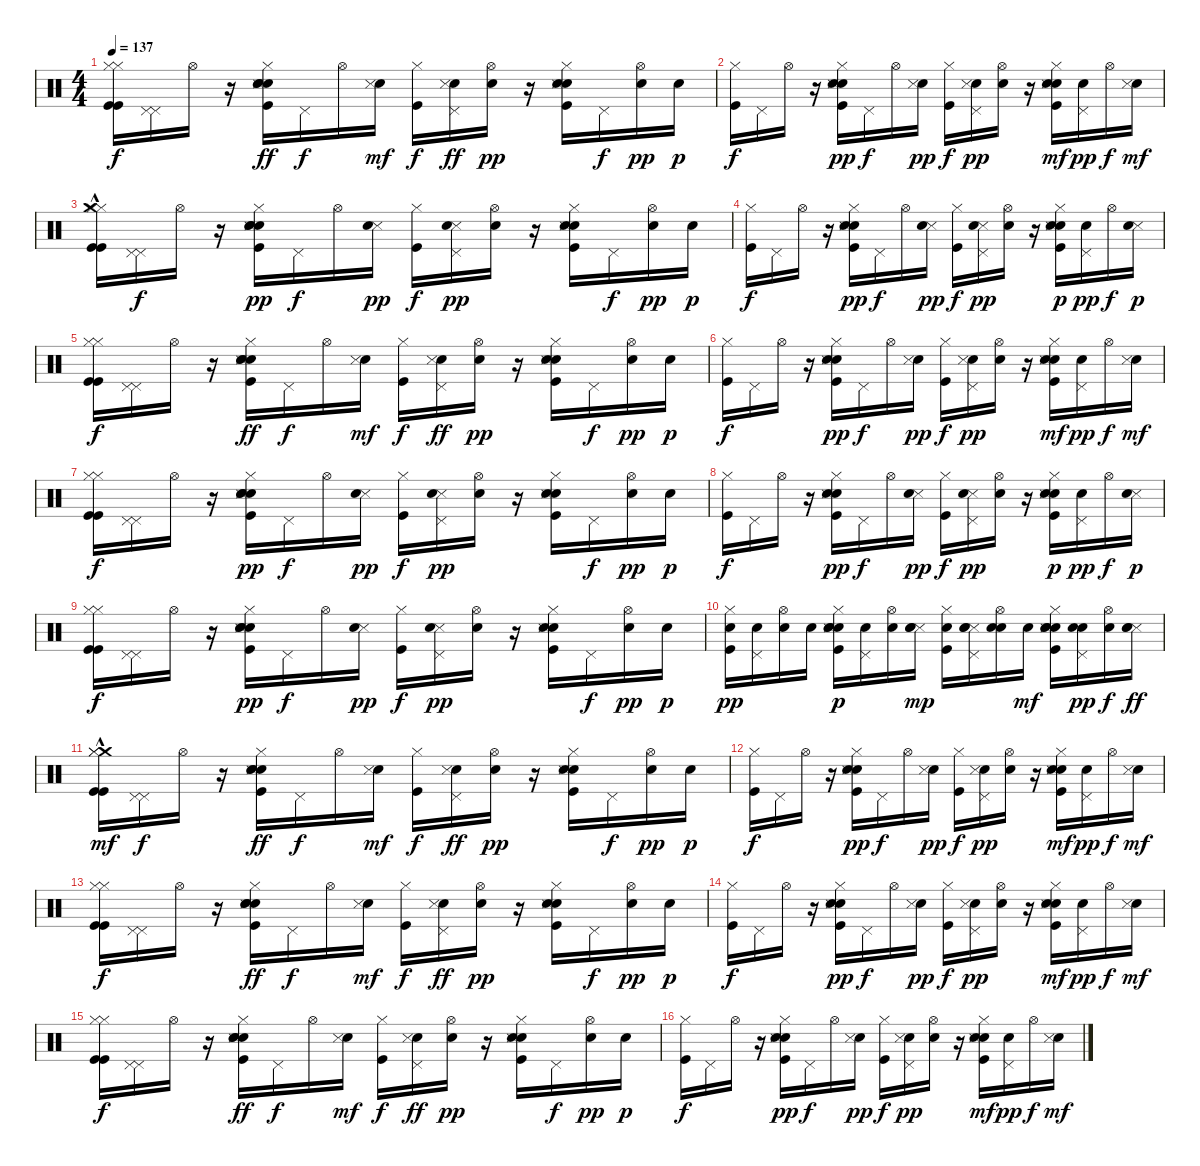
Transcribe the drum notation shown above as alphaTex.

\track "" {instrument percussion}
\staff {score}
\articulation defaults
\ts (4 4)
\tempo 137
\clef neutral
\ks c
("Hi-Hat (closed)" "Kick (hit)" "Kick (hit)" "Hi-Hat (closed)").16{dy f volume 13} ("Pedal Hi-Hat (hit)" "Pedal Hi-Hat (hit)").16 "Hi-Hat (open)".16 r.16 ("Hand Clap (hit)" "Kick (hit)" "Hi-Hat (closed)" "Metronome (bell)" "Metronome (bell)" "Snare (side stick) 3").16{dy ff} "Pedal Hi-Hat (hit)".16{dy f} "Hi-Hat (open)".16 ("Metronome (bell)" "Snare (side stick) 3").16{dy mf} ("Kick (hit)" "Hi-Hat (closed)").16{dy f} ("Pedal Hi-Hat (hit)" "Metronome (bell)" "Snare (side stick) 3").16{dy ff} ("Hi-Hat (open)" "Metronome (bell)").16{dy pp} r.16 ("Hand Clap (hit)" "Hi-Hat (closed)" "Kick (hit)" "Metronome (bell)" "Snare (side stick) 3").16 "Pedal Hi-Hat (hit)".16{dy f} ("Hi-Hat (open)" "Metronome (bell)").16{dy pp} "Metronome (bell)".16{dy p} |
("Hi-Hat (closed)" "Kick (hit)").16{dy f} "Pedal Hi-Hat (hit)".16 "Hi-Hat (open)".16 r.16 ("Hand Clap (hit)" "Kick (hit)" "Hi-Hat (closed)" "Metronome (bell)" "Snare (side stick) 3").16{dy pp} "Pedal Hi-Hat (hit)".16{dy f} "Hi-Hat (open)".16 ("Metronome (bell)" "Snare (side stick) 3").16{dy pp} ("Kick (hit)" "Hi-Hat (closed)").16{dy f} ("Pedal Hi-Hat (hit)" "Metronome (bell)" "Snare (side stick) 3").16{dy pp} ("Hi-Hat (open)" "Metronome (bell)").16 r.16 ("Hand Clap (hit)" "Hi-Hat (closed)" "Kick (hit)" "Metronome (bell)" "Snare (side stick) 3").16{dy mf} ("Pedal Hi-Hat (hit)" "Metronome (bell)").16{dy pp} "Hi-Hat (open)".16{dy f} ("Metronome (bell)" "Snare (side stick) 3").16{dy mf} |
("Hi-Hat (closed)" "Kick (hit)" "Kick (hit)" "Hi-Hat (closed)" "Crash medium (hit)"{hac}).16{volume 13} ("Pedal Hi-Hat (hit)" "Pedal Hi-Hat (hit)").16{dy f} "Hi-Hat (open)".16 r.16 ("Hand Clap (hit)" "Kick (hit)" "Hi-Hat (closed)" "Snare (side stick) 3" "Metronome (bell)" "Metronome (bell)").16{dy pp} "Pedal Hi-Hat (hit)".16{dy f} "Hi-Hat (open)".16 ("Snare (side stick) 3" "Metronome (bell)").16{dy pp} ("Kick (hit)" "Hi-Hat (closed)").16{dy f} ("Pedal Hi-Hat (hit)" "Snare (side stick) 3" "Metronome (bell)").16{dy pp} ("Hi-Hat (open)" "Metronome (bell)").16 r.16 ("Hand Clap (hit)" "Hi-Hat (closed)" "Kick (hit)" "Snare (side stick) 3" "Metronome (bell)").16 "Pedal Hi-Hat (hit)".16{dy f} ("Hi-Hat (open)" "Metronome (bell)").16{dy pp} "Metronome (bell)".16{dy p} |
("Hi-Hat (closed)" "Kick (hit)").16{dy f} "Pedal Hi-Hat (hit)".16 "Hi-Hat (open)".16 r.16 ("Hand Clap (hit)" "Kick (hit)" "Hi-Hat (closed)" "Snare (side stick) 3" "Metronome (bell)").16{dy pp} "Pedal Hi-Hat (hit)".16{dy f} "Hi-Hat (open)".16 ("Snare (side stick) 3" "Metronome (bell)").16{dy pp} ("Kick (hit)" "Hi-Hat (closed)").16{dy f} ("Pedal Hi-Hat (hit)" "Snare (side stick) 3" "Metronome (bell)").16{dy pp} ("Hi-Hat (open)" "Metronome (bell)").16 r.16 ("Hand Clap (hit)" "Hi-Hat (closed)" "Kick (hit)" "Snare (side stick) 3" "Metronome (bell)").16{dy p} ("Pedal Hi-Hat (hit)" "Metronome (bell)").16{dy pp} "Hi-Hat (open)".16{dy f} ("Snare (side stick) 3" "Metronome (bell)").16{dy p} |
("Hi-Hat (closed)" "Kick (hit)" "Kick (hit)" "Hi-Hat (closed)").16{dy f volume 13} ("Pedal Hi-Hat (hit)" "Pedal Hi-Hat (hit)").16 "Hi-Hat (open)".16 r.16 ("Hand Clap (hit)" "Kick (hit)" "Hi-Hat (closed)" "Metronome (bell)" "Metronome (bell)" "Snare (side stick) 3").16{dy ff} "Pedal Hi-Hat (hit)".16{dy f} "Hi-Hat (open)".16 ("Metronome (bell)" "Snare (side stick) 3").16{dy mf} ("Kick (hit)" "Hi-Hat (closed)").16{dy f} ("Pedal Hi-Hat (hit)" "Metronome (bell)" "Snare (side stick) 3").16{dy ff} ("Hi-Hat (open)" "Metronome (bell)").16{dy pp} r.16 ("Hand Clap (hit)" "Hi-Hat (closed)" "Kick (hit)" "Metronome (bell)" "Snare (side stick) 3").16 "Pedal Hi-Hat (hit)".16{dy f} ("Hi-Hat (open)" "Metronome (bell)").16{dy pp} "Metronome (bell)".16{dy p} |
("Hi-Hat (closed)" "Kick (hit)").16{dy f} "Pedal Hi-Hat (hit)".16 "Hi-Hat (open)".16 r.16 ("Hand Clap (hit)" "Kick (hit)" "Hi-Hat (closed)" "Metronome (bell)" "Snare (side stick) 3").16{dy pp} "Pedal Hi-Hat (hit)".16{dy f} "Hi-Hat (open)".16 ("Metronome (bell)" "Snare (side stick) 3").16{dy pp} ("Kick (hit)" "Hi-Hat (closed)").16{dy f} ("Pedal Hi-Hat (hit)" "Metronome (bell)" "Snare (side stick) 3").16{dy pp} ("Hi-Hat (open)" "Metronome (bell)").16 r.16 ("Hand Clap (hit)" "Hi-Hat (closed)" "Kick (hit)" "Metronome (bell)" "Snare (side stick) 3").16{dy mf} ("Pedal Hi-Hat (hit)" "Metronome (bell)").16{dy pp} "Hi-Hat (open)".16{dy f} ("Metronome (bell)" "Snare (side stick) 3").16{dy mf} |
("Hi-Hat (closed)" "Kick (hit)" "Kick (hit)" "Hi-Hat (closed)").16{dy f volume 13} ("Pedal Hi-Hat (hit)" "Pedal Hi-Hat (hit)").16 "Hi-Hat (open)".16 r.16 ("Hand Clap (hit)" "Kick (hit)" "Hi-Hat (closed)" "Snare (side stick) 3" "Metronome (bell)" "Metronome (bell)").16{dy pp} "Pedal Hi-Hat (hit)".16{dy f} "Hi-Hat (open)".16 ("Snare (side stick) 3" "Metronome (bell)").16{dy pp} ("Kick (hit)" "Hi-Hat (closed)").16{dy f} ("Pedal Hi-Hat (hit)" "Snare (side stick) 3" "Metronome (bell)").16{dy pp} ("Hi-Hat (open)" "Metronome (bell)").16 r.16 ("Hand Clap (hit)" "Hi-Hat (closed)" "Kick (hit)" "Snare (side stick) 3" "Metronome (bell)").16 "Pedal Hi-Hat (hit)".16{dy f} ("Hi-Hat (open)" "Metronome (bell)").16{dy pp} "Metronome (bell)".16{dy p} |
("Hi-Hat (closed)" "Kick (hit)").16{dy f} "Pedal Hi-Hat (hit)".16 "Hi-Hat (open)".16 r.16 ("Hand Clap (hit)" "Kick (hit)" "Hi-Hat (closed)" "Snare (side stick) 3" "Metronome (bell)").16{dy pp} "Pedal Hi-Hat (hit)".16{dy f} "Hi-Hat (open)".16 ("Snare (side stick) 3" "Metronome (bell)").16{dy pp} ("Kick (hit)" "Hi-Hat (closed)").16{dy f} ("Pedal Hi-Hat (hit)" "Snare (side stick) 3" "Metronome (bell)").16{dy pp} ("Hi-Hat (open)" "Metronome (bell)").16 r.16 ("Hand Clap (hit)" "Hi-Hat (closed)" "Kick (hit)" "Snare (side stick) 3" "Metronome (bell)").16{dy p} ("Pedal Hi-Hat (hit)" "Metronome (bell)").16{dy pp} "Hi-Hat (open)".16{dy f} ("Snare (side stick) 3" "Metronome (bell)").16{dy p} |
("Hi-Hat (closed)" "Kick (hit)" "Kick (hit)" "Hi-Hat (closed)").16{dy f volume 13} ("Pedal Hi-Hat (hit)" "Pedal Hi-Hat (hit)").16 "Hi-Hat (open)".16 r.16 ("Hand Clap (hit)" "Kick (hit)" "Hi-Hat (closed)" "Snare (side stick) 3" "Metronome (bell)" "Metronome (bell)").16{dy pp} "Pedal Hi-Hat (hit)".16{dy f} "Hi-Hat (open)".16 ("Snare (side stick) 3" "Metronome (bell)").16{dy pp} ("Kick (hit)" "Hi-Hat (closed)").16{dy f} ("Pedal Hi-Hat (hit)" "Snare (side stick) 3" "Metronome (bell)").16{dy pp} ("Hi-Hat (open)" "Metronome (bell)").16 r.16 ("Hand Clap (hit)" "Hi-Hat (closed)" "Kick (hit)" "Snare (side stick) 3" "Metronome (bell)").16 "Pedal Hi-Hat (hit)".16{dy f} ("Hi-Hat (open)" "Metronome (bell)").16{dy pp} "Metronome (bell)".16{dy p} |
("Hi-Hat (closed)" "Kick (hit)" "Snare (hit) 2").16{dy pp} ("Pedal Hi-Hat (hit)" "Snare (hit) 2").16 ("Hi-Hat (open)" "Snare (hit) 2").16 "Snare (hit) 2".16 ("Hand Clap (hit)" "Kick (hit)" "Hi-Hat (closed)" "Snare (side stick) 3" "Metronome (bell)" "Snare (hit) 2").16{dy p} ("Pedal Hi-Hat (hit)" "Snare (hit) 2").16 ("Hi-Hat (open)" "Snare (hit) 2").16 ("Snare (side stick) 3" "Metronome (bell)" "Snare (hit) 2").16{dy mp} ("Kick (hit)" "Hi-Hat (closed)" "Snare (hit) 2").16 ("Pedal Hi-Hat (hit)" "Snare (side stick) 3" "Metronome (bell)" "Snare (hit) 2").16 ("Hi-Hat (open)" "Metronome (bell)" "Snare (hit) 2").16 "Snare (hit) 2".16{dy mf} ("Hand Clap (hit)" "Hi-Hat (closed)" "Kick (hit)" "Snare (side stick) 3" "Metronome (bell)" "Snare (hit) 2").16 ("Pedal Hi-Hat (hit)" "Metronome (bell)" "Snare (hit) 2").16{dy pp} ("Hi-Hat (open)" "Snare (hit) 2").16{dy f} ("Snare (side stick) 3" "Metronome (bell)" "Snare (hit) 2").16{dy ff} |
("Crash medium (hit)"{hac} "Hi-Hat (closed)" "Kick (hit)" "Kick (hit)" "Hi-Hat (closed)").16{dy mf volume 13} ("Pedal Hi-Hat (hit)" "Pedal Hi-Hat (hit)").16{dy f} "Hi-Hat (open)".16 r.16 ("Hand Clap (hit)" "Kick (hit)" "Hi-Hat (closed)" "Metronome (bell)" "Metronome (bell)" "Snare (side stick) 3").16{dy ff} "Pedal Hi-Hat (hit)".16{dy f} "Hi-Hat (open)".16 ("Metronome (bell)" "Snare (side stick) 3").16{dy mf} ("Kick (hit)" "Hi-Hat (closed)").16{dy f} ("Pedal Hi-Hat (hit)" "Metronome (bell)" "Snare (side stick) 3").16{dy ff} ("Hi-Hat (open)" "Metronome (bell)").16{dy pp} r.16 ("Hand Clap (hit)" "Hi-Hat (closed)" "Kick (hit)" "Metronome (bell)" "Snare (side stick) 3").16 "Pedal Hi-Hat (hit)".16{dy f} ("Hi-Hat (open)" "Metronome (bell)").16{dy pp} "Metronome (bell)".16{dy p} |
("Hi-Hat (closed)" "Kick (hit)").16{dy f} "Pedal Hi-Hat (hit)".16 "Hi-Hat (open)".16 r.16 ("Hand Clap (hit)" "Kick (hit)" "Hi-Hat (closed)" "Metronome (bell)" "Snare (side stick) 3").16{dy pp} "Pedal Hi-Hat (hit)".16{dy f} "Hi-Hat (open)".16 ("Metronome (bell)" "Snare (side stick) 3").16{dy pp} ("Kick (hit)" "Hi-Hat (closed)").16{dy f} ("Pedal Hi-Hat (hit)" "Metronome (bell)" "Snare (side stick) 3").16{dy pp} ("Hi-Hat (open)" "Metronome (bell)").16 r.16 ("Hand Clap (hit)" "Hi-Hat (closed)" "Kick (hit)" "Metronome (bell)" "Snare (side stick) 3").16{dy mf} ("Pedal Hi-Hat (hit)" "Metronome (bell)").16{dy pp} "Hi-Hat (open)".16{dy f} ("Metronome (bell)" "Snare (side stick) 3").16{dy mf} |
("Hi-Hat (closed)" "Kick (hit)" "Kick (hit)" "Hi-Hat (closed)").16{dy f volume 13} ("Pedal Hi-Hat (hit)" "Pedal Hi-Hat (hit)").16 "Hi-Hat (open)".16 r.16 ("Hand Clap (hit)" "Kick (hit)" "Hi-Hat (closed)" "Metronome (bell)" "Metronome (bell)" "Snare (side stick) 3").16{dy ff} "Pedal Hi-Hat (hit)".16{dy f} "Hi-Hat (open)".16 ("Metronome (bell)" "Snare (side stick) 3").16{dy mf} ("Kick (hit)" "Hi-Hat (closed)").16{dy f} ("Pedal Hi-Hat (hit)" "Metronome (bell)" "Snare (side stick) 3").16{dy ff} ("Hi-Hat (open)" "Metronome (bell)").16{dy pp} r.16 ("Hand Clap (hit)" "Hi-Hat (closed)" "Kick (hit)" "Metronome (bell)" "Snare (side stick) 3").16 "Pedal Hi-Hat (hit)".16{dy f} ("Hi-Hat (open)" "Metronome (bell)").16{dy pp} "Metronome (bell)".16{dy p} |
("Hi-Hat (closed)" "Kick (hit)").16{dy f} "Pedal Hi-Hat (hit)".16 "Hi-Hat (open)".16 r.16 ("Hand Clap (hit)" "Kick (hit)" "Hi-Hat (closed)" "Metronome (bell)" "Snare (side stick) 3").16{dy pp} "Pedal Hi-Hat (hit)".16{dy f} "Hi-Hat (open)".16 ("Metronome (bell)" "Snare (side stick) 3").16{dy pp} ("Kick (hit)" "Hi-Hat (closed)").16{dy f} ("Pedal Hi-Hat (hit)" "Metronome (bell)" "Snare (side stick) 3").16{dy pp} ("Hi-Hat (open)" "Metronome (bell)").16 r.16 ("Hand Clap (hit)" "Hi-Hat (closed)" "Kick (hit)" "Metronome (bell)" "Snare (side stick) 3").16{dy mf} ("Pedal Hi-Hat (hit)" "Metronome (bell)").16{dy pp} "Hi-Hat (open)".16{dy f} ("Metronome (bell)" "Snare (side stick) 3").16{dy mf} |
("Hi-Hat (closed)" "Kick (hit)" "Kick (hit)" "Hi-Hat (closed)").16{dy f volume 13} ("Pedal Hi-Hat (hit)" "Pedal Hi-Hat (hit)").16 "Hi-Hat (open)".16 r.16 ("Hand Clap (hit)" "Kick (hit)" "Hi-Hat (closed)" "Metronome (bell)" "Metronome (bell)" "Snare (side stick) 3").16{dy ff} "Pedal Hi-Hat (hit)".16{dy f} "Hi-Hat (open)".16 ("Metronome (bell)" "Snare (side stick) 3").16{dy mf} ("Kick (hit)" "Hi-Hat (closed)").16{dy f} ("Pedal Hi-Hat (hit)" "Metronome (bell)" "Snare (side stick) 3").16{dy ff} ("Hi-Hat (open)" "Metronome (bell)").16{dy pp} r.16 ("Hand Clap (hit)" "Hi-Hat (closed)" "Kick (hit)" "Metronome (bell)" "Snare (side stick) 3").16 "Pedal Hi-Hat (hit)".16{dy f} ("Hi-Hat (open)" "Metronome (bell)").16{dy pp} "Metronome (bell)".16{dy p} |
("Hi-Hat (closed)" "Kick (hit)").16{dy f} "Pedal Hi-Hat (hit)".16 "Hi-Hat (open)".16 r.16 ("Hand Clap (hit)" "Kick (hit)" "Hi-Hat (closed)" "Metronome (bell)" "Snare (side stick) 3").16{dy pp} "Pedal Hi-Hat (hit)".16{dy f} "Hi-Hat (open)".16 ("Metronome (bell)" "Snare (side stick) 3").16{dy pp} ("Kick (hit)" "Hi-Hat (closed)").16{dy f} ("Pedal Hi-Hat (hit)" "Metronome (bell)" "Snare (side stick) 3").16{dy pp} ("Hi-Hat (open)" "Metronome (bell)").16 r.16 ("Hand Clap (hit)" "Hi-Hat (closed)" "Kick (hit)" "Metronome (bell)" "Snare (side stick) 3").16{dy mf} ("Pedal Hi-Hat (hit)" "Metronome (bell)").16{dy pp} "Hi-Hat (open)".16{dy f} ("Metronome (bell)" "Snare (side stick) 3").16{dy mf}
